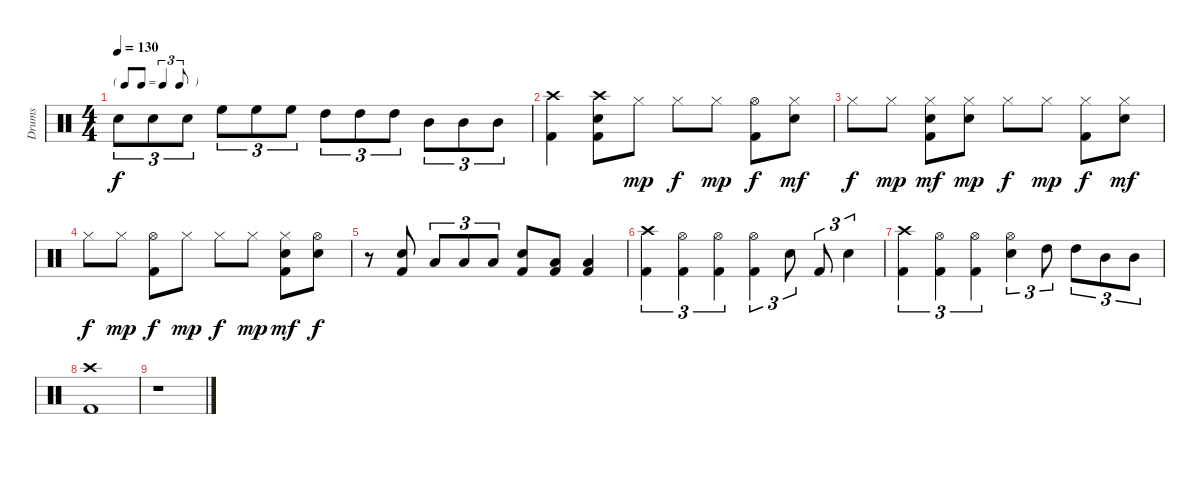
\track ("Drums" "Drums") {instrument percussion}
\staff {score}
\articulation defaults
\ts (4 4)
\tf triplet8th
\tempo 130
\clef neutral
\ks c "Electric Snare (hit)".8{tu (3 2) dy f} "Electric Snare (hit)".8{tu (3 2)} "Electric Snare (hit)".8{tu (3 2)} "High Floor Tom (hit)".8{tu (3 2)} "High Floor Tom (hit)".8{tu (3 2)} "High Floor Tom (hit)".8{tu (3 2)} "High Tom (hit)".8{tu (3 2)} "High Tom (hit)".8{tu (3 2)} "High Tom (hit)".8{tu (3 2)} "Mid Tom (hit)".8{tu (3 2)} "Mid Tom (hit)".8{tu (3 2)} "Mid Tom (hit)".8{tu (3 2)}
|
("Crash high (hit)" "Kick (hit) 2").4 ("Crash high (hit)" "Electric Snare (hit)" "Kick (hit) 2").8 "Hi-Hat (closed)".8{dy mp} "Hi-Hat (closed)".8{dy f} "Hi-Hat (closed)".8{dy mp} ("Hi-Hat (open)" "Kick (hit) 2").8{dy f} ("Hi-Hat (closed)" "Electric Snare (hit)").8{dy mf} |
"Hi-Hat (closed)".8{dy f} "Hi-Hat (closed)".8{dy mp} ("Hi-Hat (closed)" "Electric Snare (hit)" "Kick (hit) 2").8{dy mf} ("Hi-Hat (closed)" "Electric Snare (hit)").8{dy mp} "Hi-Hat (closed)".8{dy f} "Hi-Hat (closed)".8{dy mp} ("Hi-Hat (closed)" "Kick (hit) 2").8{dy f} ("Hi-Hat (closed)" "Electric Snare (hit)").8{dy mf} |
"Hi-Hat (closed)".8{dy f} "Hi-Hat (closed)".8{dy mp} ("Hi-Hat (open)" "Kick (hit) 2").8{dy f} "Hi-Hat (closed)".8{dy mp} "Hi-Hat (closed)".8{dy f} "Hi-Hat (closed)".8{dy mp} ("Hi-Hat (closed)" "Electric Snare (hit)" "Kick (hit) 2").8{dy mf} ("Hi-Hat (open)" "Electric Snare (hit)").8{dy f} |
r.8 ("Electric Snare (hit)" "Kick (hit) 2").8 "Low Tom (hit)".8{tu (3 2)} "Low Tom (hit)".8{tu (3 2)} "Low Tom (hit)".8{tu (3 2)} ("Electric Snare (hit)" "Kick (hit) 2").8 ("Low Floor Tom (hit)" "Kick (hit) 2").8 ("Low Floor Tom (hit)" "Kick (hit) 2").4 |
("Crash high (hit)" "Kick (hit) 2").4{tu (3 2)} ("Hi-Hat (open)" "Kick (hit) 2").4{tu (3 2)} ("Hi-Hat (open)" "Kick (hit) 2").4{tu (3 2)} ("Hi-Hat (open)" "Kick (hit) 2").4{tu (3 2)} "Electric Snare (hit)".8{tu (3 2)} "Kick (hit) 2".8{tu (3 2)} "Electric Snare (hit)".4{tu (3 2)} |
("Crash high (hit)" "Kick (hit) 2").4{tu (3 2)} ("Hi-Hat (open)" "Kick (hit) 2").4{tu (3 2)} ("Hi-Hat (open)" "Kick (hit) 2").4{tu (3 2)} ("Hi-Hat (open)" "Electric Snare (hit)").4{tu (3 2)} "High Tom (hit)".8{tu (3 2)} "High Tom (hit)".8{tu (3 2)} "Mid Tom (hit)".8{tu (3 2)} "Mid Tom (hit)".8{tu (3 2)} |
("Crash high (hit)" "Kick (hit) 2").1 |
r.1
